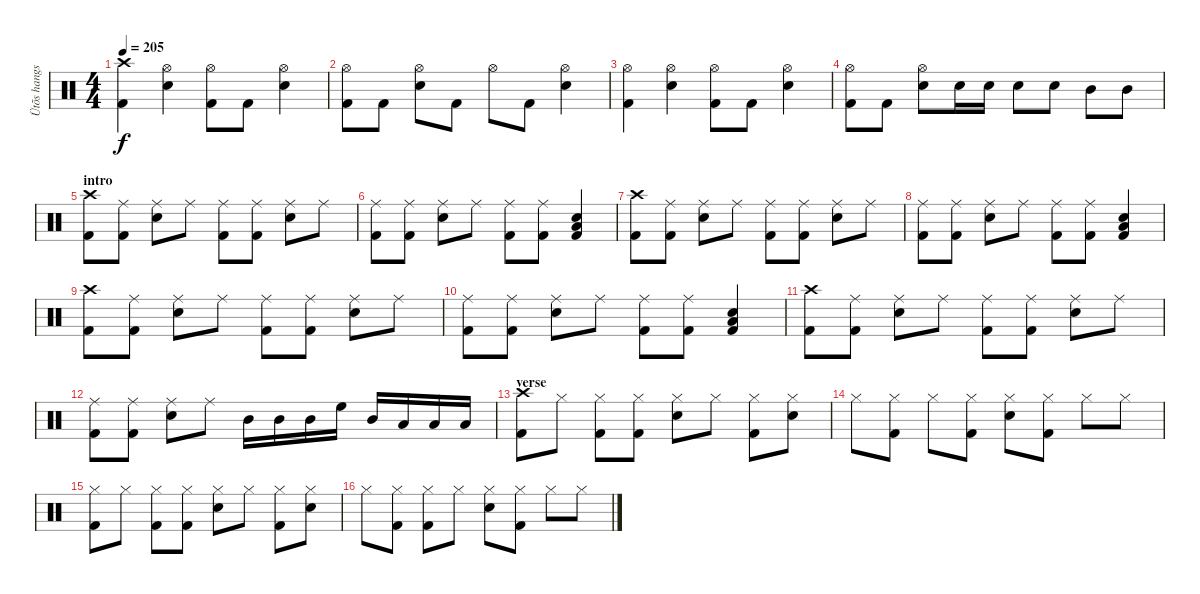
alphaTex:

\track ("Ütõs hangszer" "Ütõs hangs") {instrument percussion}
\staff {score}
\articulation defaults
\ts (4 4)
\tempo 205
\clef neutral
\ks c
("Crash high (hit)" "Kick (hit) 2").4{dy f} ("Hi-Hat (open)" "Snare (hit) 2").4 ("Hi-Hat (open)" "Kick (hit) 2").8 "Kick (hit) 2".8 ("Hi-Hat (open)" "Snare (hit) 2").4 |
("Hi-Hat (open)" "Kick (hit) 2").8 "Kick (hit) 2".8 ("Hi-Hat (open)" "Snare (hit) 2").8 "Kick (hit) 2".8 "Hi-Hat (open)".8 "Kick (hit) 2".8 ("Hi-Hat (open)" "Snare (hit) 2").4 |
("Hi-Hat (open)" "Kick (hit) 2").4 ("Hi-Hat (open)" "Snare (hit) 2").4 ("Hi-Hat (open)" "Kick (hit) 2").8 "Kick (hit) 2".8 ("Hi-Hat (open)" "Snare (hit) 2").4 |
("Hi-Hat (open)" "Kick (hit) 2").8 "Kick (hit) 2".8 ("Hi-Hat (open)" "Snare (hit) 2").8 "Snare (hit) 2".16 "Snare (hit) 2".16 "Snare (hit) 2".8 "Snare (hit) 2".8 "Mid Tom (hit)".8 "Mid Tom (hit)".8 |
\section ("" "intro")
("Crash high (hit)" "Kick (hit) 2").8 ("Ride (middle)" "Kick (hit) 2").8 ("Ride (middle)" "Snare (hit) 2").8 "Ride (middle)".8 ("Ride (middle)" "Kick (hit) 2").8 ("Ride (middle)" "Kick (hit) 2").8 ("Ride (middle)" "Snare (hit) 2").8 "Ride (middle)".8 |
("Ride (middle)" "Kick (hit) 2").8 ("Ride (middle)" "Kick (hit) 2").8 ("Ride (middle)" "Snare (hit) 2").8 "Ride (middle)".8 ("Ride (middle)" "Kick (hit) 2").8 ("Ride (middle)" "Kick (hit) 2").8 ("Kick (hit) 2" "Low Tom (hit)" "Snare (hit) 2").4 |
("Crash high (hit)" "Kick (hit) 2").8 ("Ride (middle)" "Kick (hit) 2").8 ("Ride (middle)" "Snare (hit) 2").8 "Ride (middle)".8 ("Ride (middle)" "Kick (hit) 2").8 ("Ride (middle)" "Kick (hit) 2").8 ("Ride (middle)" "Snare (hit) 2").8 "Ride (middle)".8 |
("Ride (middle)" "Kick (hit) 2").8 ("Ride (middle)" "Kick (hit) 2").8 ("Ride (middle)" "Snare (hit) 2").8 "Ride (middle)".8 ("Ride (middle)" "Kick (hit) 2").8 ("Ride (middle)" "Kick (hit) 2").8 ("Kick (hit) 2" "Low Tom (hit)" "Snare (hit) 2").4 |
("Crash high (hit)" "Kick (hit) 2").8 ("Ride (middle)" "Kick (hit) 2").8 ("Ride (middle)" "Snare (hit) 2").8 "Ride (middle)".8 ("Ride (middle)" "Kick (hit) 2").8 ("Ride (middle)" "Kick (hit) 2").8 ("Ride (middle)" "Snare (hit) 2").8 "Ride (middle)".8 |
("Ride (middle)" "Kick (hit) 2").8 ("Ride (middle)" "Kick (hit) 2").8 ("Ride (middle)" "Snare (hit) 2").8 "Ride (middle)".8 ("Ride (middle)" "Kick (hit) 2").8 ("Ride (middle)" "Kick (hit) 2").8 ("Kick (hit) 2" "Low Tom (hit)" "Snare (hit) 2").4 |
("Crash high (hit)" "Kick (hit) 2").8 ("Ride (middle)" "Kick (hit) 2").8 ("Ride (middle)" "Snare (hit) 2").8 "Ride (middle)".8 ("Ride (middle)" "Kick (hit) 2").8 ("Ride (middle)" "Kick (hit) 2").8 ("Ride (middle)" "Snare (hit) 2").8 "Ride (middle)".8 |
("Ride (middle)" "Kick (hit) 2").8 ("Ride (middle)" "Kick (hit) 2").8 ("Ride (middle)" "Snare (hit) 2").8 "Ride (middle)".8 "Mid Tom (hit)".16 "Mid Tom (hit)".16 "Mid Tom (hit)".16 "High Floor Tom (hit)".16 "Mid Tom (hit)".16 "Low Tom (hit)".16 "Low Tom (hit)".16 "Low Tom (hit)".16 |
\section ("" "verse")
("Crash high (hit)" "Kick (hit) 2").8 "Hi-Hat (closed)".8 ("Hi-Hat (closed)" "Kick (hit) 2").8 ("Hi-Hat (closed)" "Kick (hit) 2").8 ("Hi-Hat (closed)" "Snare (hit) 2").8 "Hi-Hat (closed)".8 ("Hi-Hat (closed)" "Kick (hit) 2").8 ("Hi-Hat (closed)" "Snare (hit) 2").8 |
"Hi-Hat (closed)".8 ("Hi-Hat (closed)" "Kick (hit) 2").8 "Hi-Hat (closed)".8 ("Hi-Hat (closed)" "Kick (hit) 2").8 ("Hi-Hat (closed)" "Snare (hit) 2").8 ("Hi-Hat (closed)" "Kick (hit) 2").8 "Hi-Hat (closed)".8 "Hi-Hat (closed)".8 |
("Hi-Hat (closed)" "Kick (hit) 2").8 "Hi-Hat (closed)".8 ("Hi-Hat (closed)" "Kick (hit) 2").8 ("Hi-Hat (closed)" "Kick (hit) 2").8 ("Hi-Hat (closed)" "Snare (hit) 2").8 "Hi-Hat (closed)".8 ("Hi-Hat (closed)" "Kick (hit) 2").8 ("Hi-Hat (closed)" "Snare (hit) 2").8 |
"Hi-Hat (closed)".8 ("Hi-Hat (closed)" "Kick (hit) 2").8 ("Hi-Hat (closed)" "Kick (hit) 2").8 "Hi-Hat (closed)".8 ("Hi-Hat (closed)" "Snare (hit) 2").8 ("Hi-Hat (closed)" "Kick (hit) 2").8 "Hi-Hat (closed)".8 "Hi-Hat (closed)".8
